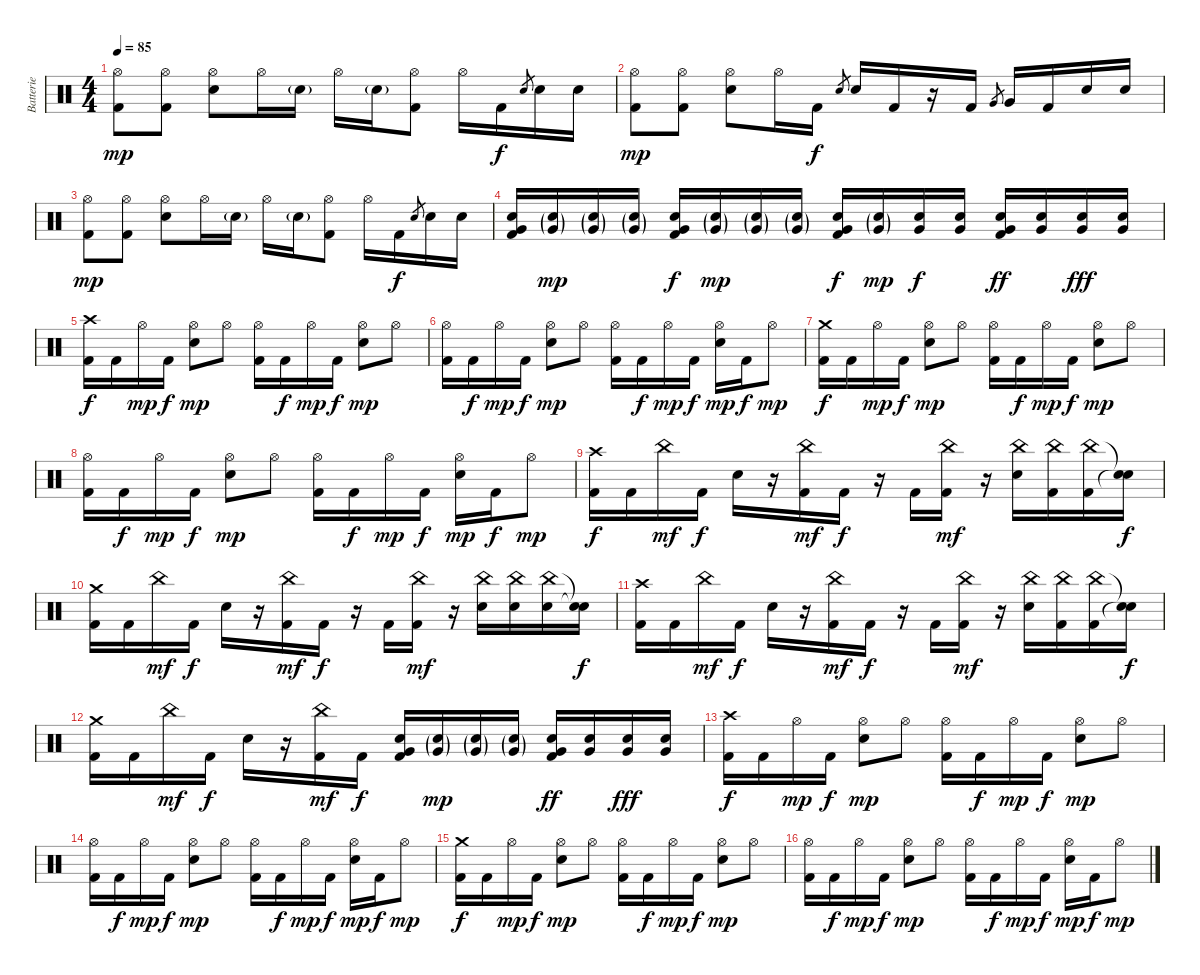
\track ("Batterie" "Batterie") {instrument percussion}
\staff {score}
\articulation defaults
\ts (4 4)
\tempo 85
\clef neutral
\ks c
("Hi-Hat (open)" "Kick (hit) 2").8{dy mp} ("Hi-Hat (open)" "Kick (hit) 2").8 ("Hi-Hat (open)" "Electric Snare (hit)").8 "Hi-Hat (open)".16 "Electric Snare (hit)"{g}.16 "Hi-Hat (open)".16 "Electric Snare (hit)"{g}.16 ("Hi-Hat (open)" "Kick (hit) 2").8 "Hi-Hat (open)".16 "Kick (hit) 2".16{dy f} "Electric Snare (hit)".8{gr} "Electric Snare (hit)".16 "Electric Snare (hit)".16 |
("Hi-Hat (open)" "Kick (hit) 2").8{dy mp} ("Hi-Hat (open)" "Kick (hit) 2").8 ("Hi-Hat (open)" "Electric Snare (hit)").8 "Hi-Hat (open)".16 "Kick (hit) 2".16{dy f} "Electric Snare (hit)".8{gr} "Electric Snare (hit)".16 "Kick (hit) 2".16 r.16 "Kick (hit) 2".16 "Very Low Tom (hit)".8{gr} "Very Low Tom (hit)".16 "Kick (hit) 2".16 "Electric Snare (hit)".16 "Electric Snare (hit)".16 |
("Hi-Hat (open)" "Kick (hit) 2").8{dy mp} ("Hi-Hat (open)" "Kick (hit) 2").8 ("Hi-Hat (open)" "Electric Snare (hit)").8 "Hi-Hat (open)".16 "Electric Snare (hit)"{g}.16 "Hi-Hat (open)".16 "Electric Snare (hit)"{g}.16 ("Hi-Hat (open)" "Kick (hit) 2").8 "Hi-Hat (open)".16 "Kick (hit) 2".16{dy f} "Electric Snare (hit)".8{gr} "Electric Snare (hit)".16 "Electric Snare (hit)".16 |
("Electric Snare (hit)" "Very Low Tom (hit)" "Kick (hit) 2").16 ("Electric Snare (hit)"{g} "Very Low Tom (hit)"{g}).16{dy mp} ("Electric Snare (hit)"{g} "Very Low Tom (hit)"{g}).16 ("Electric Snare (hit)"{g} "Very Low Tom (hit)"{g}).16 ("Electric Snare (hit)" "Very Low Tom (hit)" "Kick (hit) 2").16{dy f} ("Electric Snare (hit)"{g} "Very Low Tom (hit)"{g}).16{dy mp} ("Electric Snare (hit)"{g} "Very Low Tom (hit)"{g}).16 ("Electric Snare (hit)"{g} "Very Low Tom (hit)"{g}).16 ("Electric Snare (hit)" "Very Low Tom (hit)" "Kick (hit) 2").16{dy f} ("Electric Snare (hit)"{g} "Very Low Tom (hit)"{g}).16{dy mp} ("Electric Snare (hit)" "Very Low Tom (hit)").16{dy f} ("Electric Snare (hit)" "Very Low Tom (hit)").16 ("Electric Snare (hit)" "Very Low Tom (hit)" "Kick (hit) 2").16{dy ff} ("Electric Snare (hit)" "Very Low Tom (hit)").16 ("Electric Snare (hit)" "Very Low Tom (hit)").16{dy fff} ("Electric Snare (hit)" "Very Low Tom (hit)").16 |
("Crash high (hit)" "Kick (hit) 2").16{dy f} "Kick (hit) 2".16 "Hi-Hat (open)".16{dy mp} "Kick (hit) 2".16{dy f} ("Hi-Hat (open)" "Electric Snare (hit)").8{dy mp} "Hi-Hat (open)".8 ("Hi-Hat (open)" "Kick (hit) 2").16 "Kick (hit) 2".16{dy f} "Hi-Hat (open)".16{dy mp} "Kick (hit) 2".16{dy f} ("Hi-Hat (open)" "Electric Snare (hit)").8{dy mp} "Hi-Hat (open)".8 |
("Hi-Hat (open)" "Kick (hit) 2").16 "Kick (hit) 2".16{dy f} "Hi-Hat (open)".16{dy mp} "Kick (hit) 2".16{dy f} ("Hi-Hat (open)" "Electric Snare (hit)").8{dy mp} "Hi-Hat (open)".8 ("Hi-Hat (open)" "Kick (hit) 2").16 "Kick (hit) 2".16{dy f} "Hi-Hat (open)".16{dy mp} "Kick (hit) 2".16{dy f} ("Hi-Hat (open)" "Electric Snare (hit)").16{dy mp} "Kick (hit) 2".16{dy f} "Hi-Hat (open)".8{dy mp} |
("Crash medium (hit)" "Kick (hit) 2").16{dy f} "Kick (hit) 2".16 "Hi-Hat (open)".16{dy mp} "Kick (hit) 2".16{dy f} ("Hi-Hat (open)" "Electric Snare (hit)").8{dy mp} "Hi-Hat (open)".8 ("Hi-Hat (open)" "Kick (hit) 2").16 "Kick (hit) 2".16{dy f} "Hi-Hat (open)".16{dy mp} "Kick (hit) 2".16{dy f} ("Hi-Hat (open)" "Electric Snare (hit)").8{dy mp} "Hi-Hat (open)".8 |
("Hi-Hat (open)" "Kick (hit) 2").16 "Kick (hit) 2".16{dy f} "Hi-Hat (open)".16{dy mp} "Kick (hit) 2".16{dy f} ("Hi-Hat (open)" "Electric Snare (hit)").8{dy mp} "Hi-Hat (open)".8 ("Hi-Hat (open)" "Kick (hit) 2").16 "Kick (hit) 2".16{dy f} "Hi-Hat (open)".16{dy mp} "Kick (hit) 2".16{dy f} ("Hi-Hat (open)" "Electric Snare (hit)").16{dy mp} "Kick (hit) 2".16{dy f} "Hi-Hat (open)".8{dy mp} |
("Crash high (hit)" "Kick (hit) 2").16{dy f} "Kick (hit) 2".16 "China (hit)".16{dy mf} "Kick (hit) 2".16{dy f} "Electric Snare (hit)".16 r.16 ("China (hit)" "Kick (hit) 2").16{dy mf} "Kick (hit) 2".16{dy f} r.16 "Kick (hit) 2".16 ("China (hit)" "Kick (hit) 2").16{dy mf} r.16 ("China (hit)" "Electric Snare (hit)").16 ("China (hit)" "Kick (hit) 2").16 ("China (hit)" "Kick (hit) 2").16 ("Snare (hit)"{t} "Snare (hit)"{t}).16{dy f} |
("Crash medium (hit)" "Kick (hit) 2").16 "Kick (hit) 2".16 "China (hit)".16{dy mf} "Kick (hit) 2".16{dy f} "Electric Snare (hit)".16 r.16 ("China (hit)" "Kick (hit) 2").16{dy mf} "Kick (hit) 2".16{dy f} r.16 "Kick (hit) 2".16 ("China (hit)" "Kick (hit) 2").16{dy mf} r.16 ("China (hit)" "Electric Snare (hit)").16 ("China (hit)" "Electric Snare (hit)").16 ("China (hit)" "Electric Snare (hit)").16 ("Snare (hit)"{t} "Snare (hit)"{t}).16{dy f} |
("Crash high (hit)" "Kick (hit) 2").16 "Kick (hit) 2".16 "China (hit)".16{dy mf} "Kick (hit) 2".16{dy f} "Electric Snare (hit)".16 r.16 ("China (hit)" "Kick (hit) 2").16{dy mf} "Kick (hit) 2".16{dy f} r.16 "Kick (hit) 2".16 ("China (hit)" "Kick (hit) 2").16{dy mf} r.16 ("China (hit)" "Electric Snare (hit)").16 ("China (hit)" "Kick (hit) 2").16 ("China (hit)" "Kick (hit) 2").16 ("Snare (hit)"{t} "Snare (hit)"{t}).16{dy f} |
("Crash medium (hit)" "Kick (hit) 2").16 "Kick (hit) 2".16 "China (hit)".16{dy mf} "Kick (hit) 2".16{dy f} "Electric Snare (hit)".16 r.16 ("China (hit)" "Kick (hit) 2").16{dy mf} "Kick (hit) 2".16{dy f} ("Electric Snare (hit)" "Very Low Tom (hit)" "Kick (hit) 2").16 ("Electric Snare (hit)"{g} "Very Low Tom (hit)"{g}).16{dy mp} ("Electric Snare (hit)"{g} "Very Low Tom (hit)"{g}).16 ("Electric Snare (hit)"{g} "Very Low Tom (hit)"{g}).16 ("Electric Snare (hit)" "Very Low Tom (hit)" "Kick (hit) 2").16{dy ff} ("Electric Snare (hit)" "Very Low Tom (hit)").16 ("Electric Snare (hit)" "Very Low Tom (hit)").16{dy fff} ("Electric Snare (hit)" "Very Low Tom (hit)").16 |
("Crash high (hit)" "Kick (hit) 2").16{dy f} "Kick (hit) 2".16 "Hi-Hat (open)".16{dy mp} "Kick (hit) 2".16{dy f} ("Hi-Hat (open)" "Electric Snare (hit)").8{dy mp} "Hi-Hat (open)".8 ("Hi-Hat (open)" "Kick (hit) 2").16 "Kick (hit) 2".16{dy f} "Hi-Hat (open)".16{dy mp} "Kick (hit) 2".16{dy f} ("Hi-Hat (open)" "Electric Snare (hit)").8{dy mp} "Hi-Hat (open)".8 |
("Hi-Hat (open)" "Kick (hit) 2").16 "Kick (hit) 2".16{dy f} "Hi-Hat (open)".16{dy mp} "Kick (hit) 2".16{dy f} ("Hi-Hat (open)" "Electric Snare (hit)").8{dy mp} "Hi-Hat (open)".8 ("Hi-Hat (open)" "Kick (hit) 2").16 "Kick (hit) 2".16{dy f} "Hi-Hat (open)".16{dy mp} "Kick (hit) 2".16{dy f} ("Hi-Hat (open)" "Electric Snare (hit)").16{dy mp} "Kick (hit) 2".16{dy f} "Hi-Hat (open)".8{dy mp} |
("Crash medium (hit)" "Kick (hit) 2").16{dy f} "Kick (hit) 2".16 "Hi-Hat (open)".16{dy mp} "Kick (hit) 2".16{dy f} ("Hi-Hat (open)" "Electric Snare (hit)").8{dy mp} "Hi-Hat (open)".8 ("Hi-Hat (open)" "Kick (hit) 2").16 "Kick (hit) 2".16{dy f} "Hi-Hat (open)".16{dy mp} "Kick (hit) 2".16{dy f} ("Hi-Hat (open)" "Electric Snare (hit)").8{dy mp} "Hi-Hat (open)".8 |
("Hi-Hat (open)" "Kick (hit) 2").16 "Kick (hit) 2".16{dy f} "Hi-Hat (open)".16{dy mp} "Kick (hit) 2".16{dy f} ("Hi-Hat (open)" "Electric Snare (hit)").8{dy mp} "Hi-Hat (open)".8 ("Hi-Hat (open)" "Kick (hit) 2").16 "Kick (hit) 2".16{dy f} "Hi-Hat (open)".16{dy mp} "Kick (hit) 2".16{dy f} ("Hi-Hat (open)" "Electric Snare (hit)").16{dy mp} "Kick (hit) 2".16{dy f} "Hi-Hat (open)".8{dy mp}
